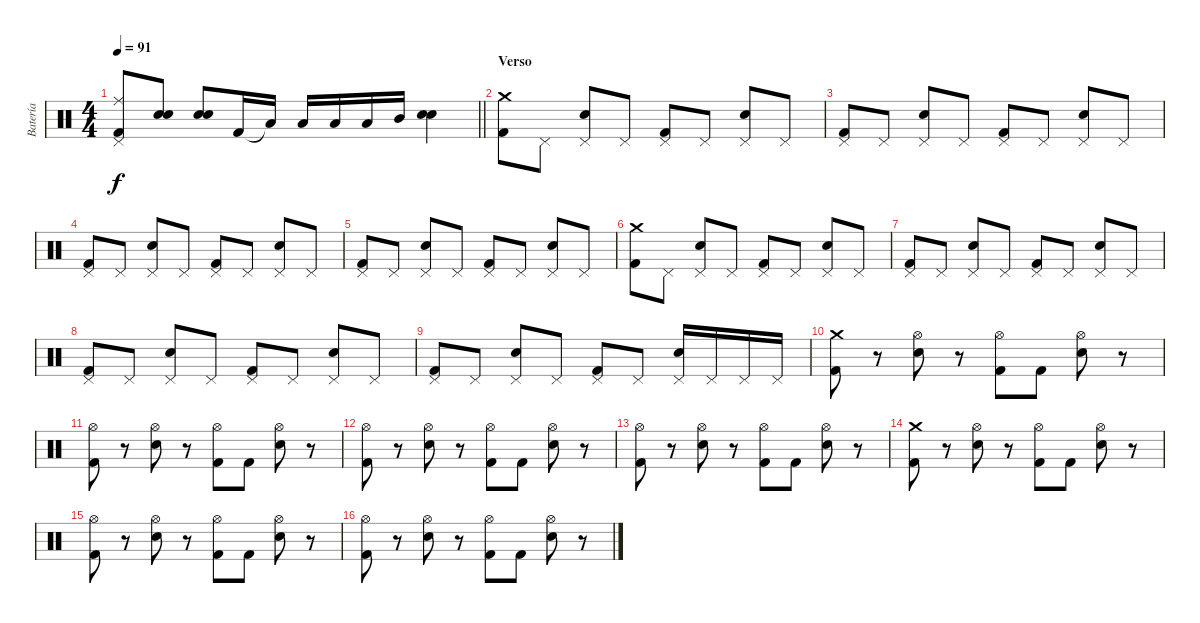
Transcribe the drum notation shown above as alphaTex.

\track ("Batería" "Batería") {instrument percussion}
\staff {score}
\articulation defaults
\ts (4 4)
\tempo 91
\clef neutral
\barLineRight lightlight
\ks c
("Pedal Hi-Hat (hit)" "Ride (middle)" "Kick (hit) 2").8{dy f} ("Snare (hit) 2" "Snare (hit) 2").8{bd 60} ("Snare (hit) 2" "Snare (hit) 2").8{bd 60} "Kick (hit) 2".16 "Low Tom (hit)"{t}.16 "Low Tom (hit)".16 "Low Tom (hit)".16 "Low Tom (hit)".16 "Mid Tom (hit)".16 ("Snare (hit) 2" "Snare (hit) 2").4 |
\section ("" "Verso")
("Crash medium (hit)" "Kick (hit) 2").8 "Pedal Hi-Hat (hit)".8 ("Pedal Hi-Hat (hit)" "Snare (hit) 2").8 "Pedal Hi-Hat (hit)".8 ("Pedal Hi-Hat (hit)" "Kick (hit) 2").8 "Pedal Hi-Hat (hit)".8 ("Pedal Hi-Hat (hit)" "Snare (hit) 2").8 "Pedal Hi-Hat (hit)".8 |
("Pedal Hi-Hat (hit)" "Kick (hit) 2").8 "Pedal Hi-Hat (hit)".8 ("Pedal Hi-Hat (hit)" "Snare (hit) 2").8 "Pedal Hi-Hat (hit)".8 ("Pedal Hi-Hat (hit)" "Kick (hit) 2").8 "Pedal Hi-Hat (hit)".8 ("Pedal Hi-Hat (hit)" "Snare (hit) 2").8 "Pedal Hi-Hat (hit)".8 |
("Pedal Hi-Hat (hit)" "Kick (hit) 2").8 "Pedal Hi-Hat (hit)".8 ("Pedal Hi-Hat (hit)" "Snare (hit) 2").8 "Pedal Hi-Hat (hit)".8 ("Pedal Hi-Hat (hit)" "Kick (hit) 2").8 "Pedal Hi-Hat (hit)".8 ("Pedal Hi-Hat (hit)" "Snare (hit) 2").8 "Pedal Hi-Hat (hit)".8 |
("Pedal Hi-Hat (hit)" "Kick (hit) 2").8 "Pedal Hi-Hat (hit)".8 ("Pedal Hi-Hat (hit)" "Snare (hit) 2").8 "Pedal Hi-Hat (hit)".8 ("Pedal Hi-Hat (hit)" "Kick (hit) 2").8 "Pedal Hi-Hat (hit)".8 ("Pedal Hi-Hat (hit)" "Snare (hit) 2").8 "Pedal Hi-Hat (hit)".8 |
("Crash medium (hit)" "Kick (hit) 2").8 "Pedal Hi-Hat (hit)".8 ("Pedal Hi-Hat (hit)" "Snare (hit) 2").8 "Pedal Hi-Hat (hit)".8 ("Pedal Hi-Hat (hit)" "Kick (hit) 2").8 "Pedal Hi-Hat (hit)".8 ("Pedal Hi-Hat (hit)" "Snare (hit) 2").8 "Pedal Hi-Hat (hit)".8 |
("Pedal Hi-Hat (hit)" "Kick (hit) 2").8 "Pedal Hi-Hat (hit)".8 ("Pedal Hi-Hat (hit)" "Snare (hit) 2").8 "Pedal Hi-Hat (hit)".8 ("Pedal Hi-Hat (hit)" "Kick (hit) 2").8 "Pedal Hi-Hat (hit)".8 ("Pedal Hi-Hat (hit)" "Snare (hit) 2").8 "Pedal Hi-Hat (hit)".8 |
("Pedal Hi-Hat (hit)" "Kick (hit) 2").8 "Pedal Hi-Hat (hit)".8 ("Pedal Hi-Hat (hit)" "Snare (hit) 2").8 "Pedal Hi-Hat (hit)".8 ("Pedal Hi-Hat (hit)" "Kick (hit) 2").8 "Pedal Hi-Hat (hit)".8 ("Pedal Hi-Hat (hit)" "Snare (hit) 2").8 "Pedal Hi-Hat (hit)".8 |
("Pedal Hi-Hat (hit)" "Kick (hit) 2").8 "Pedal Hi-Hat (hit)".8 ("Pedal Hi-Hat (hit)" "Snare (hit) 2").8 "Pedal Hi-Hat (hit)".8 ("Pedal Hi-Hat (hit)" "Kick (hit) 2").8 "Pedal Hi-Hat (hit)".8 ("Pedal Hi-Hat (hit)" "Snare (hit) 2").16 "Pedal Hi-Hat (hit)".16 "Pedal Hi-Hat (hit)".16 "Pedal Hi-Hat (hit)".16 |
("Crash medium (hit)" "Kick (hit) 2").8 r.8 ("Hi-Hat (open)" "Snare (hit) 2").8 r.8 ("Hi-Hat (open)" "Kick (hit) 2").8 "Kick (hit) 2".8 ("Hi-Hat (open)" "Snare (hit) 2").8 r.8 |
("Hi-Hat (open)" "Kick (hit) 2").8 r.8 ("Hi-Hat (open)" "Snare (hit) 2").8 r.8 ("Hi-Hat (open)" "Kick (hit) 2").8 "Kick (hit) 2".8 ("Hi-Hat (open)" "Snare (hit) 2").8 r.8 |
("Hi-Hat (open)" "Kick (hit) 2").8 r.8 ("Hi-Hat (open)" "Snare (hit) 2").8 r.8 ("Hi-Hat (open)" "Kick (hit) 2").8 "Kick (hit) 2".8 ("Hi-Hat (open)" "Snare (hit) 2").8 r.8 |
("Hi-Hat (open)" "Kick (hit) 2").8 r.8 ("Hi-Hat (open)" "Snare (hit) 2").8 r.8 ("Hi-Hat (open)" "Kick (hit) 2").8 "Kick (hit) 2".8 ("Hi-Hat (open)" "Snare (hit) 2").8 r.8 |
("Crash medium (hit)" "Kick (hit) 2").8 r.8 ("Hi-Hat (open)" "Snare (hit) 2").8 r.8 ("Hi-Hat (open)" "Kick (hit) 2").8 "Kick (hit) 2".8 ("Hi-Hat (open)" "Snare (hit) 2").8 r.8 |
("Hi-Hat (open)" "Kick (hit) 2").8 r.8 ("Hi-Hat (open)" "Snare (hit) 2").8 r.8 ("Hi-Hat (open)" "Kick (hit) 2").8 "Kick (hit) 2".8 ("Hi-Hat (open)" "Snare (hit) 2").8 r.8 |
("Hi-Hat (open)" "Kick (hit) 2").8 r.8 ("Hi-Hat (open)" "Snare (hit) 2").8 r.8 ("Hi-Hat (open)" "Kick (hit) 2").8 "Kick (hit) 2".8 ("Hi-Hat (open)" "Snare (hit) 2").8 r.8
